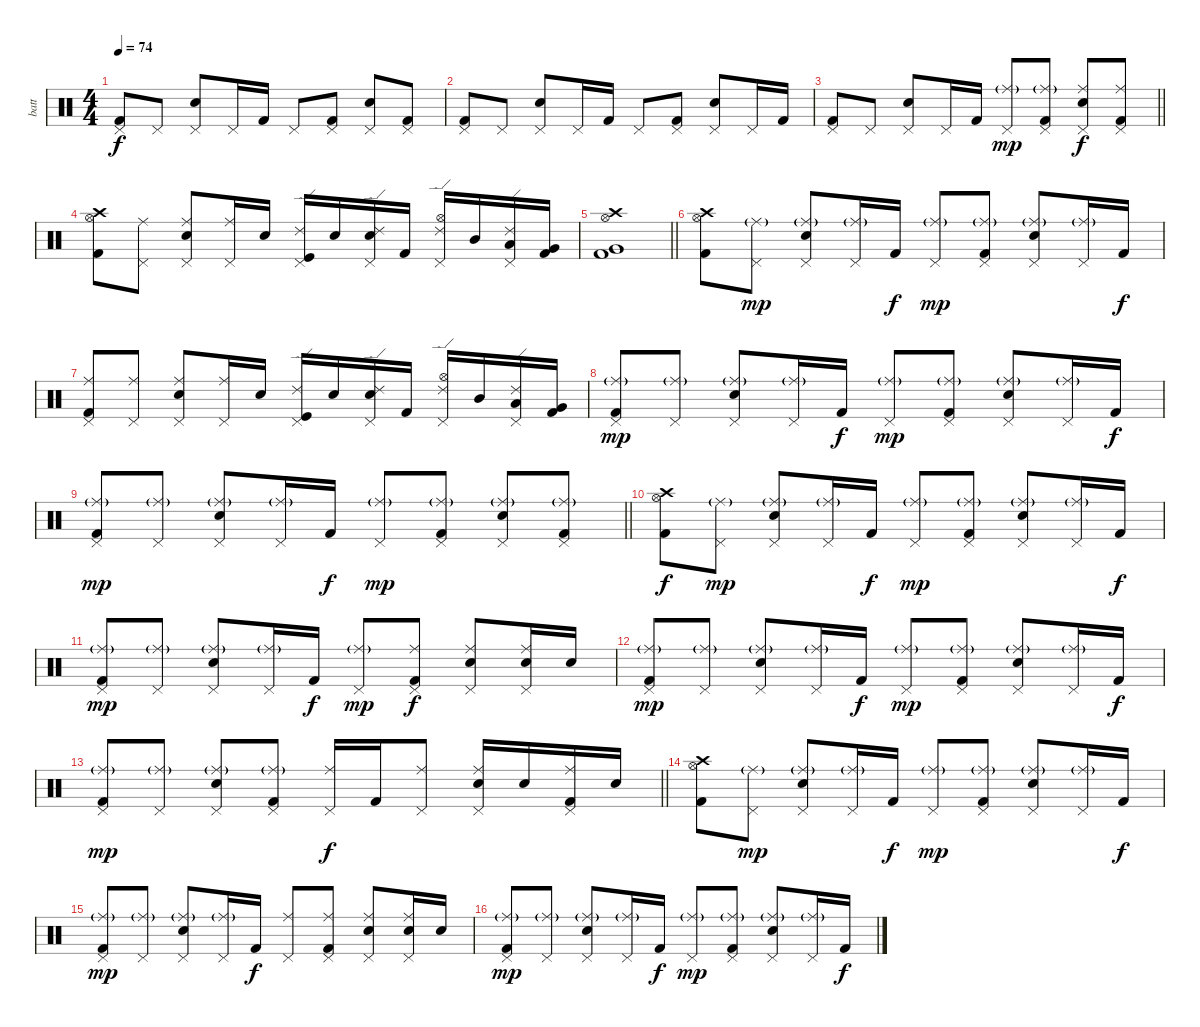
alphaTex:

\track ("batt" "batt") {instrument percussion}
\staff {score}
\articulation defaults
\ts (4 4)
\tempo 74
\clef neutral
\ks c
("Pedal Hi-Hat (hit)" "Kick (hit) 2").8{dy f} "Pedal Hi-Hat (hit)".8 ("Pedal Hi-Hat (hit)" "Electric Snare (hit)").8 "Pedal Hi-Hat (hit)".16 "Kick (hit) 2".16 "Pedal Hi-Hat (hit)".8 ("Pedal Hi-Hat (hit)" "Kick (hit) 2").8 ("Pedal Hi-Hat (hit)" "Electric Snare (hit)").8 ("Pedal Hi-Hat (hit)" "Kick (hit) 2").8 |
("Pedal Hi-Hat (hit)" "Kick (hit) 2").8 "Pedal Hi-Hat (hit)".8 ("Pedal Hi-Hat (hit)" "Electric Snare (hit)").8 "Pedal Hi-Hat (hit)".16 "Kick (hit) 2".16 "Pedal Hi-Hat (hit)".8 ("Pedal Hi-Hat (hit)" "Kick (hit) 2").8 ("Pedal Hi-Hat (hit)" "Electric Snare (hit)").8 "Pedal Hi-Hat (hit)".16 "Kick (hit) 2".16 |
\barLineRight lightlight
("Pedal Hi-Hat (hit)" "Kick (hit) 2").8 "Pedal Hi-Hat (hit)".8 ("Pedal Hi-Hat (hit)" "Electric Snare (hit)").8 "Pedal Hi-Hat (hit)".16 "Kick (hit) 2".16 ("Pedal Hi-Hat (hit)" "Ride (middle)"{g}).8{dy mp} ("Pedal Hi-Hat (hit)" "Ride (middle)"{g} "Kick (hit) 2").8 ("Pedal Hi-Hat (hit)" "Ride (middle)" "Electric Snare (hit)").8{dy f} ("Pedal Hi-Hat (hit)" "Ride (middle)" "Kick (hit) 2").8 |
("Crash high (hit)" "Hi-Hat (open)" "Kick (hit) 2").8 ("Pedal Hi-Hat (hit)" "Ride (middle)").8 ("Pedal Hi-Hat (hit)" "Ride (middle)" "Electric Snare (hit)").8 ("Pedal Hi-Hat (hit)" "Ride (middle)").16 "Electric Snare (hit)".16 ("Pedal Hi-Hat (hit)" "Ride (edge) 2" "Kick (hit)").16 "Electric Snare (hit)".16 ("Pedal Hi-Hat (hit)" "Ride (edge) 2" "Electric Snare (hit)").16 "Kick (hit) 2".16 ("Pedal Hi-Hat (hit)" "Ride (edge) 2" "Hi-Hat (open)").16 "Mid Tom (hit)".16 ("Pedal Hi-Hat (hit)" "Ride (edge) 2" "Low Tom (hit)").16 ("Very Low Tom (hit)" "Kick (hit) 2").16 |
\barLineRight lightlight
("Hi-Hat (open)" "Crash high (hit)" "Very Low Tom (hit)" "Kick (hit) 2").1 |
("Crash high (hit)" "Hi-Hat (open)" "Kick (hit) 2").8 ("Pedal Hi-Hat (hit)" "Ride (middle)"{g}).8{dy mp} ("Pedal Hi-Hat (hit)" "Ride (middle)"{g} "Electric Snare (hit)").8 ("Pedal Hi-Hat (hit)" "Ride (middle)"{g}).16 "Kick (hit) 2".16{dy f} ("Pedal Hi-Hat (hit)" "Ride (middle)"{g}).8{dy mp} ("Pedal Hi-Hat (hit)" "Ride (middle)"{g} "Kick (hit) 2").8 ("Pedal Hi-Hat (hit)" "Ride (middle)"{g} "Electric Snare (hit)").8 ("Pedal Hi-Hat (hit)" "Ride (middle)"{g}).16 "Kick (hit) 2".16{dy f} |
("Pedal Hi-Hat (hit)" "Ride (middle)" "Kick (hit) 2").8 ("Pedal Hi-Hat (hit)" "Ride (middle)").8 ("Pedal Hi-Hat (hit)" "Ride (middle)" "Electric Snare (hit)").8 ("Pedal Hi-Hat (hit)" "Ride (middle)").16 "Electric Snare (hit)".16 ("Pedal Hi-Hat (hit)" "Ride (edge) 2" "Kick (hit)").16 "Electric Snare (hit)".16 ("Pedal Hi-Hat (hit)" "Ride (edge) 2" "Electric Snare (hit)").16 "Kick (hit) 2".16 ("Pedal Hi-Hat (hit)" "Ride (edge) 2" "Hi-Hat (open)").16 "Mid Tom (hit)".16 ("Pedal Hi-Hat (hit)" "Ride (edge) 2" "Low Tom (hit)").16 ("Very Low Tom (hit)" "Kick (hit) 2").16 |
("Pedal Hi-Hat (hit)" "Ride (middle)"{g} "Kick (hit) 2").8{dy mp} ("Pedal Hi-Hat (hit)" "Ride (middle)"{g}).8 ("Pedal Hi-Hat (hit)" "Ride (middle)"{g} "Electric Snare (hit)").8 ("Pedal Hi-Hat (hit)" "Ride (middle)"{g}).16 "Kick (hit) 2".16{dy f} ("Pedal Hi-Hat (hit)" "Ride (middle)"{g}).8{dy mp} ("Pedal Hi-Hat (hit)" "Ride (middle)"{g} "Kick (hit) 2").8 ("Pedal Hi-Hat (hit)" "Ride (middle)"{g} "Electric Snare (hit)").8 ("Pedal Hi-Hat (hit)" "Ride (middle)"{g}).16 "Kick (hit) 2".16{dy f} |
\barLineRight lightlight
("Pedal Hi-Hat (hit)" "Ride (middle)"{g} "Kick (hit) 2").8{dy mp} ("Pedal Hi-Hat (hit)" "Ride (middle)"{g}).8 ("Pedal Hi-Hat (hit)" "Ride (middle)"{g} "Electric Snare (hit)").8 ("Pedal Hi-Hat (hit)" "Ride (middle)"{g}).16 "Kick (hit) 2".16{dy f} ("Pedal Hi-Hat (hit)" "Ride (middle)"{g}).8{dy mp} ("Pedal Hi-Hat (hit)" "Ride (middle)"{g} "Kick (hit) 2").8 ("Pedal Hi-Hat (hit)" "Ride (middle)"{g} "Electric Snare (hit)").8 ("Pedal Hi-Hat (hit)" "Ride (middle)"{g} "Kick (hit) 2").8 |
("Crash high (hit)" "Hi-Hat (open)" "Kick (hit) 2").8{dy f} ("Pedal Hi-Hat (hit)" "Ride (middle)"{g}).8{dy mp} ("Pedal Hi-Hat (hit)" "Ride (middle)"{g} "Electric Snare (hit)").8 ("Pedal Hi-Hat (hit)" "Ride (middle)"{g}).16 "Kick (hit) 2".16{dy f} ("Pedal Hi-Hat (hit)" "Ride (middle)"{g}).8{dy mp} ("Pedal Hi-Hat (hit)" "Ride (middle)"{g} "Kick (hit) 2").8 ("Pedal Hi-Hat (hit)" "Ride (middle)"{g} "Electric Snare (hit)").8 ("Pedal Hi-Hat (hit)" "Ride (middle)"{g}).16 "Kick (hit) 2".16{dy f} |
("Pedal Hi-Hat (hit)" "Ride (middle)"{g} "Kick (hit) 2").8{dy mp} ("Pedal Hi-Hat (hit)" "Ride (middle)"{g}).8 ("Pedal Hi-Hat (hit)" "Ride (middle)"{g} "Electric Snare (hit)").8 ("Pedal Hi-Hat (hit)" "Ride (middle)"{g}).16 "Kick (hit) 2".16{dy f} ("Pedal Hi-Hat (hit)" "Ride (middle)"{g}).8{dy mp} ("Pedal Hi-Hat (hit)" "Ride (middle)" "Kick (hit) 2").8{dy f} ("Pedal Hi-Hat (hit)" "Ride (middle)" "Electric Snare (hit)").8 ("Pedal Hi-Hat (hit)" "Ride (middle)" "Electric Snare (hit)").16 "Electric Snare (hit)".16 |
("Pedal Hi-Hat (hit)" "Ride (middle)"{g} "Kick (hit) 2").8{dy mp} ("Pedal Hi-Hat (hit)" "Ride (middle)"{g}).8 ("Pedal Hi-Hat (hit)" "Ride (middle)"{g} "Electric Snare (hit)").8 ("Pedal Hi-Hat (hit)" "Ride (middle)"{g}).16 "Kick (hit) 2".16{dy f} ("Pedal Hi-Hat (hit)" "Ride (middle)"{g}).8{dy mp} ("Pedal Hi-Hat (hit)" "Ride (middle)"{g} "Kick (hit) 2").8 ("Pedal Hi-Hat (hit)" "Ride (middle)"{g} "Electric Snare (hit)").8 ("Pedal Hi-Hat (hit)" "Ride (middle)"{g}).16 "Kick (hit) 2".16{dy f} |
\barLineRight lightlight
("Pedal Hi-Hat (hit)" "Ride (middle)"{g} "Kick (hit) 2").8{dy mp} ("Pedal Hi-Hat (hit)" "Ride (middle)"{g}).8 ("Pedal Hi-Hat (hit)" "Ride (middle)"{g} "Electric Snare (hit)").8 ("Pedal Hi-Hat (hit)" "Ride (middle)"{g} "Kick (hit) 2").8 ("Pedal Hi-Hat (hit)" "Ride (middle)").16{dy f} "Kick (hit) 2".16 ("Pedal Hi-Hat (hit)" "Ride (middle)").8 ("Pedal Hi-Hat (hit)" "Ride (middle)" "Electric Snare (hit)").16 "Electric Snare (hit)".16 ("Pedal Hi-Hat (hit)" "Ride (middle)" "Kick (hit) 2").16 "Electric Snare (hit)".16 |
("Crash high (hit)" "Hi-Hat (open)" "Kick (hit) 2").8 ("Pedal Hi-Hat (hit)" "Ride (middle)"{g}).8{dy mp} ("Pedal Hi-Hat (hit)" "Ride (middle)"{g} "Electric Snare (hit)").8 ("Pedal Hi-Hat (hit)" "Ride (middle)"{g}).16 "Kick (hit) 2".16{dy f} ("Pedal Hi-Hat (hit)" "Ride (middle)"{g}).8{dy mp} ("Pedal Hi-Hat (hit)" "Ride (middle)"{g} "Kick (hit) 2").8 ("Pedal Hi-Hat (hit)" "Ride (middle)"{g} "Electric Snare (hit)").8 ("Pedal Hi-Hat (hit)" "Ride (middle)"{g}).16 "Kick (hit) 2".16{dy f} |
("Pedal Hi-Hat (hit)" "Ride (middle)"{g} "Kick (hit) 2").8{dy mp} ("Pedal Hi-Hat (hit)" "Ride (middle)"{g}).8 ("Pedal Hi-Hat (hit)" "Ride (middle)"{g} "Electric Snare (hit)").8 ("Pedal Hi-Hat (hit)" "Ride (middle)"{g}).16 "Kick (hit) 2".16{dy f} ("Pedal Hi-Hat (hit)" "Ride (middle)").8 ("Pedal Hi-Hat (hit)" "Ride (middle)" "Kick (hit) 2").8 ("Pedal Hi-Hat (hit)" "Ride (middle)" "Electric Snare (hit)").8 ("Pedal Hi-Hat (hit)" "Ride (middle)" "Electric Snare (hit)").16 "Electric Snare (hit)".16 |
("Pedal Hi-Hat (hit)" "Ride (middle)"{g} "Kick (hit) 2").8{dy mp} ("Pedal Hi-Hat (hit)" "Ride (middle)"{g}).8 ("Pedal Hi-Hat (hit)" "Ride (middle)"{g} "Electric Snare (hit)").8 ("Pedal Hi-Hat (hit)" "Ride (middle)"{g}).16 "Kick (hit) 2".16{dy f} ("Pedal Hi-Hat (hit)" "Ride (middle)"{g}).8{dy mp} ("Pedal Hi-Hat (hit)" "Ride (middle)"{g} "Kick (hit) 2").8 ("Pedal Hi-Hat (hit)" "Ride (middle)"{g} "Electric Snare (hit)").8 ("Pedal Hi-Hat (hit)" "Ride (middle)"{g}).16 "Kick (hit) 2".16{dy f}
